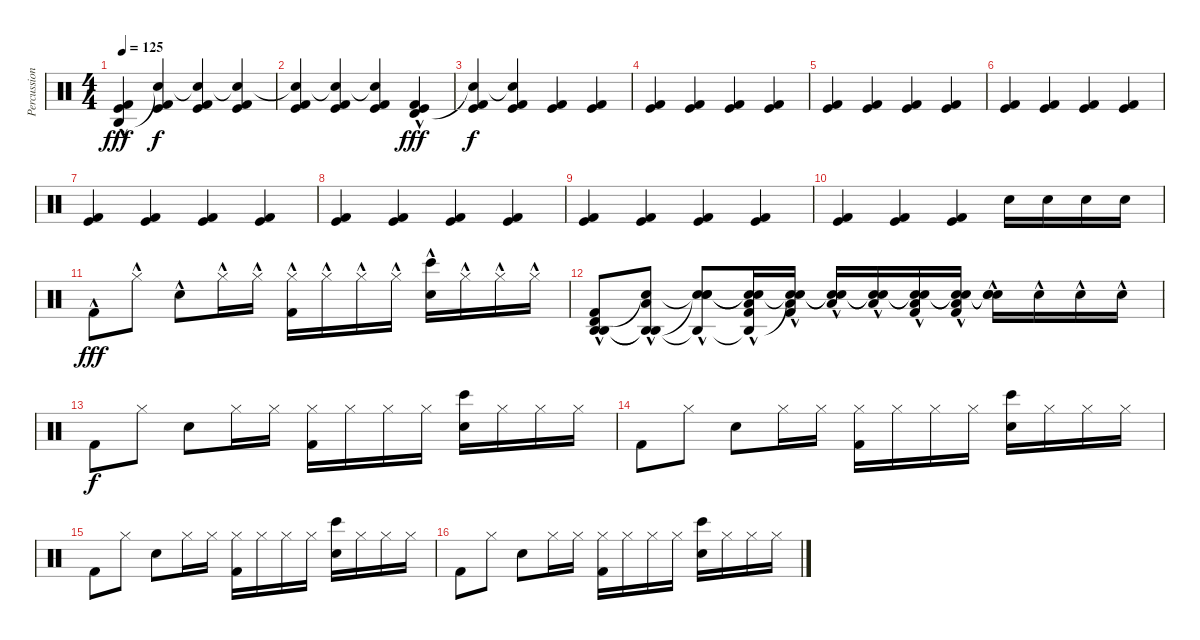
\track ("Percussion" "Percussion") {instrument percussion}
\staff {score}
\articulation defaults
\ts (4 4)
\tempo 125
\clef neutral
\ks c
("Agogo high (hit)"{hac} "Kick (hit)" "Kick (hit) 2").4{dy fff} ("Snare (hit)"{t} "Kick (hit)" "Kick (hit) 2").4{dy f} ("Snare (hit)"{t} "Kick (hit) 2" "Kick (hit)").4 ("Snare (hit)"{t} "Kick (hit)" "Kick (hit) 2").4 |
("Snare (hit)"{t} "Kick (hit)" "Kick (hit) 2").4 ("Snare (hit)"{t} "Kick (hit)" "Kick (hit) 2").4 ("Snare (hit)"{t} "Kick (hit) 2" "Kick (hit)").4 ("Timbale high (hit)"{hac} "Kick (hit)" "Kick (hit) 2").4{dy fff} |
("Snare (hit)"{t} "Kick (hit)" "Kick (hit) 2").4{dy f} ("Snare (hit)"{t} "Kick (hit)" "Kick (hit) 2").4 ("Kick (hit) 2" "Kick (hit)").4 ("Kick (hit)" "Kick (hit) 2").4 |
("Kick (hit)" "Kick (hit) 2").4 ("Kick (hit)" "Kick (hit) 2").4 ("Kick (hit) 2" "Kick (hit)").4 ("Kick (hit)" "Kick (hit) 2").4 |
("Kick (hit)" "Kick (hit) 2").4 ("Kick (hit)" "Kick (hit) 2").4 ("Kick (hit) 2" "Kick (hit)").4 ("Kick (hit)" "Kick (hit) 2").4 |
("Kick (hit)" "Kick (hit) 2").4 ("Kick (hit)" "Kick (hit) 2").4 ("Kick (hit) 2" "Kick (hit)").4 ("Kick (hit)" "Kick (hit) 2").4 |
("Kick (hit)" "Kick (hit) 2").4 ("Kick (hit)" "Kick (hit) 2").4 ("Kick (hit) 2" "Kick (hit)").4 ("Kick (hit)" "Kick (hit) 2").4 |
("Kick (hit)" "Kick (hit) 2").4 ("Kick (hit)" "Kick (hit) 2").4 ("Kick (hit) 2" "Kick (hit)").4 ("Kick (hit)" "Kick (hit) 2").4 |
("Kick (hit)" "Kick (hit) 2").4 ("Kick (hit)" "Kick (hit) 2").4 ("Kick (hit) 2" "Kick (hit)").4 ("Kick (hit)" "Kick (hit) 2").4 |
("Kick (hit)" "Kick (hit) 2").4 ("Kick (hit)" "Kick (hit) 2").4 ("Kick (hit) 2" "Kick (hit)").4 "Snare (hit) 2".16 "Snare (hit) 2".16 "Snare (hit) 2".16 "Snare (hit) 2".16 |
"Kick (hit) 2"{hac}.8{dy fff} "Hi-Hat (closed)"{hac}.8 "Snare (hit) 2"{hac}.8 "Hi-Hat (closed)"{hac}.16 "Hi-Hat (closed)"{hac}.16 ("Hi-Hat (closed)"{hac} "Kick (hit) 2"{hac}).16 "Hi-Hat (closed)"{hac}.16 "Hi-Hat (closed)"{hac}.16 "Hi-Hat (closed)"{hac}.16 ("Bongo High (hit)"{hac} "Snare (hit) 2"{hac}).16 "Hi-Hat (closed)"{hac}.16 "Hi-Hat (closed)"{hac}.16 "Hi-Hat (closed)"{hac}.16 |
("Timbale high (hit)"{hac} "Agogo high (hit)"{hac} "Agogo high (hit)"{hac} "Kick (hit) 2"{hac}).8 ("Snare (hit)"{t} "Agogo high (hit)"{t} "Agogo high (hit)"{t} "Low Tom (hit)"{hac}).8 ("Snare (hit)"{t} "Agogo high (hit)"{t} "Snare (hit)"{t} "Snare (hit) 2"{hac}).8 ("Snare (hit)"{t} "Agogo high (hit)"{t} "Snare (hit)"{t} "Low Tom (hit)"{hac} "Kick (hit) 2"{hac}).16 ("Snare (hit)"{t} "Snare (hit)"{t} "Low Tom (hit)"{hac} "Kick (hit) 2"{hac}).16 ("Snare (hit)"{t} "Snare (hit)"{t} "Low Tom (hit)"{hac}).16 ("Snare (hit)"{t} "Snare (hit)"{t} "Low Tom (hit)"{hac}).16 ("Snare (hit)"{t} "Snare (hit)"{t} "Low Tom (hit)"{hac} "Kick (hit) 2"{hac}).16 ("Snare (hit)"{t} "Snare (hit)"{t} "Low Tom (hit)"{hac} "Kick (hit) 2"{hac}).16 ("Snare (hit)"{t} "Snare (hit)"{t} "Snare (hit) 2"{hac}).16 "Snare (hit) 2"{hac}.16 "Snare (hit) 2"{hac}.16 "Snare (hit) 2"{hac}.16 |
"Kick (hit) 2".8{dy f} "Hi-Hat (closed)".8 "Snare (hit) 2".8 "Hi-Hat (closed)".16 "Hi-Hat (closed)".16 ("Hi-Hat (closed)" "Kick (hit) 2").16 "Hi-Hat (closed)".16 "Hi-Hat (closed)".16 "Hi-Hat (closed)".16 ("Bongo High (hit)" "Snare (hit) 2").16 "Hi-Hat (closed)".16 "Hi-Hat (closed)".16 "Hi-Hat (closed)".16 |
"Kick (hit) 2".8 "Hi-Hat (closed)".8 "Snare (hit) 2".8 "Hi-Hat (closed)".16 "Hi-Hat (closed)".16 ("Hi-Hat (closed)" "Kick (hit) 2").16 "Hi-Hat (closed)".16 "Hi-Hat (closed)".16 "Hi-Hat (closed)".16 ("Bongo High (hit)" "Snare (hit) 2").16 "Hi-Hat (closed)".16 "Hi-Hat (closed)".16 "Hi-Hat (closed)".16 |
"Kick (hit) 2".8 "Hi-Hat (closed)".8 "Snare (hit) 2".8 "Hi-Hat (closed)".16 "Hi-Hat (closed)".16 ("Hi-Hat (closed)" "Kick (hit) 2").16 "Hi-Hat (closed)".16 "Hi-Hat (closed)".16 "Hi-Hat (closed)".16 ("Bongo High (hit)" "Snare (hit) 2").16 "Hi-Hat (closed)".16 "Hi-Hat (closed)".16 "Hi-Hat (closed)".16 |
"Kick (hit) 2".8 "Hi-Hat (closed)".8 "Snare (hit) 2".8 "Hi-Hat (closed)".16 "Hi-Hat (closed)".16 ("Hi-Hat (closed)" "Kick (hit) 2").16 "Hi-Hat (closed)".16 "Hi-Hat (closed)".16 "Hi-Hat (closed)".16 ("Bongo High (hit)" "Snare (hit) 2").16 "Hi-Hat (closed)".16 "Hi-Hat (closed)".16 "Hi-Hat (closed)".16
